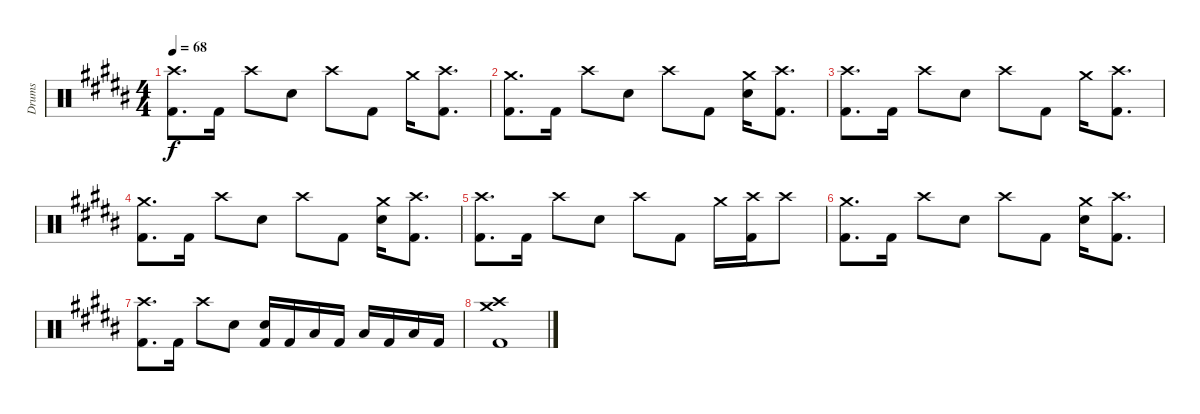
\track ("Drums" "Drums") {instrument percussion}
\staff {score}
\articulation defaults
\ts (4 4)
\tempo 68
\clef neutral
\ks b
("Crash high (hit)" "Kick (hit) 2").8{d dy f} "Kick (hit) 2".16 "Crash high (hit)".8 "Electric Snare (hit)".8 "Crash high (hit)".8 "Kick (hit) 2".8 "Crash medium (hit)".16 ("Crash high (hit)" "Kick (hit) 2").8{d} |
("Crash medium (hit)" "Kick (hit) 2").8{d} "Kick (hit) 2".16 "Crash high (hit)".8 "Electric Snare (hit)".8 "Crash high (hit)".8 "Kick (hit) 2".8 ("Crash medium (hit)" "Electric Snare (hit)").16 ("Crash high (hit)" "Kick (hit) 2").8{d} |
("Crash high (hit)" "Kick (hit) 2").8{d} "Kick (hit) 2".16 "Crash high (hit)".8 "Electric Snare (hit)".8 "Crash high (hit)".8 "Kick (hit) 2".8 "Crash medium (hit)".16 ("Crash high (hit)" "Kick (hit) 2").8{d} |
("Crash medium (hit)" "Kick (hit) 2").8{d} "Kick (hit) 2".16 "Crash high (hit)".8 "Electric Snare (hit)".8 "Crash high (hit)".8 "Kick (hit) 2".8 ("Crash medium (hit)" "Electric Snare (hit)").16 ("Crash high (hit)" "Kick (hit) 2").8{d} |
("Crash high (hit)" "Kick (hit) 2").8{d} "Kick (hit) 2".16 "Crash high (hit)".8 "Electric Snare (hit)".8 "Crash high (hit)".8 "Kick (hit) 2".8 "Crash medium (hit)".16 ("Crash high (hit)" "Kick (hit) 2").16 "Crash high (hit)".8 |
("Crash medium (hit)" "Kick (hit) 2").8{d} "Kick (hit) 2".16 "Crash high (hit)".8 "Electric Snare (hit)".8 "Crash high (hit)".8 "Kick (hit) 2".8 ("Crash medium (hit)" "Electric Snare (hit)").16 ("Crash high (hit)" "Kick (hit) 2").8{d} |
("Crash high (hit)" "Kick (hit) 2").8{d} "Kick (hit) 2".16 "Crash high (hit)".8 "Electric Snare (hit)".8 ("Electric Snare (hit)" "Kick (hit) 2").16 "Kick (hit) 2".16 "Low Tom (hit)".16 "Kick (hit) 2".16 "Low Tom (hit)".16 "Kick (hit) 2".16 "Low Tom (hit)".16 "Kick (hit) 2".16 |
("Crash medium (hit)" "Crash high (hit)" "Kick (hit) 2").1
